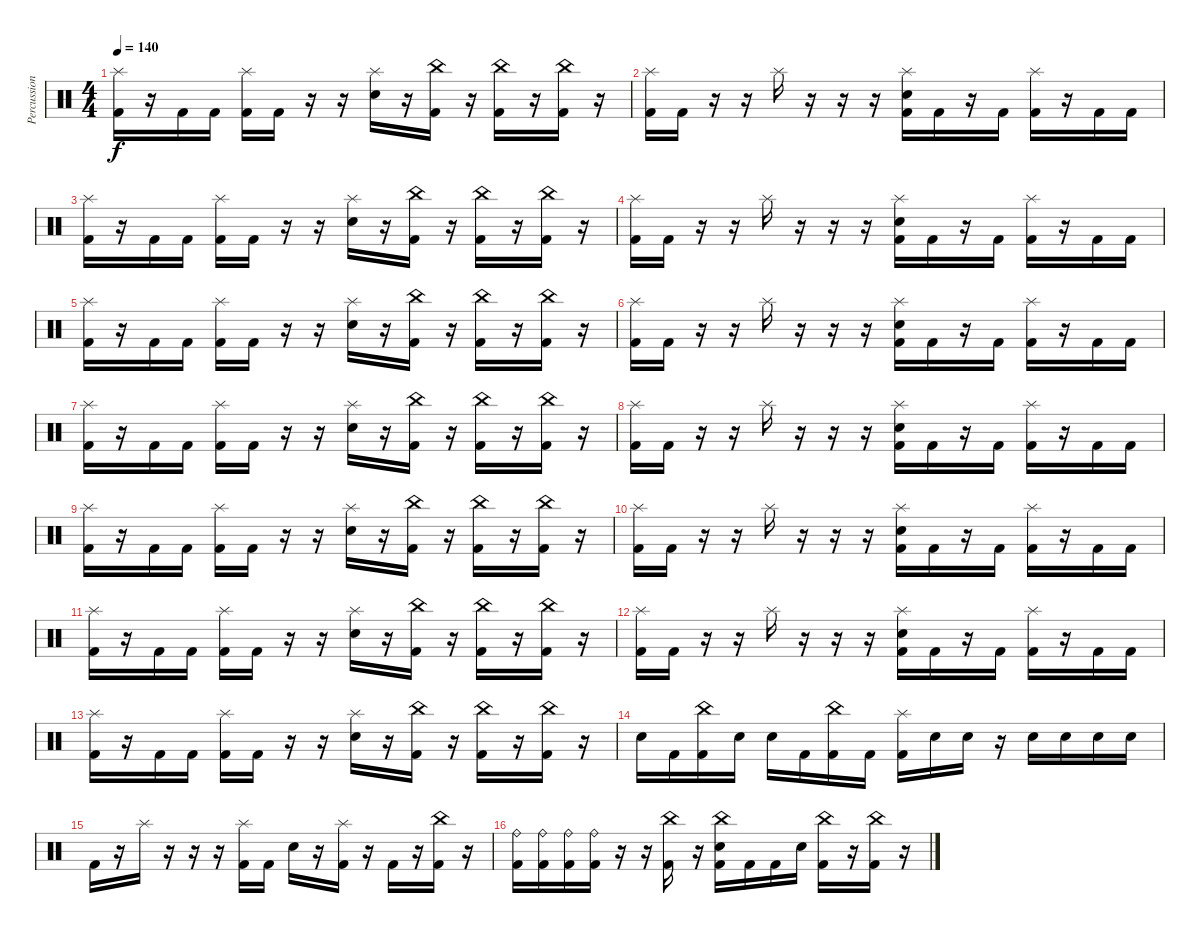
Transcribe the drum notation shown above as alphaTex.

\track ("Percussion" "Percussion") {instrument percussion}
\staff {score}
\articulation defaults
\ts (4 4)
\tempo 140
\clef neutral
\ks c
("Splash (hit)" "Kick (hit) 2").16{dy f} r.16 "Kick (hit) 2".16 "Kick (hit) 2".16 ("Splash (hit)" "Kick (hit) 2").16 "Kick (hit) 2".16 r.16 r.16 ("Splash (hit)" "Snare (hit) 2").16 r.16 ("China (hit)" "Kick (hit) 2").16 r.16 ("China (hit)" "Kick (hit) 2").16 r.16 ("China (hit)" "Kick (hit) 2").16 r.16 |
("Splash (hit)" "Kick (hit) 2").16 "Kick (hit) 2".16 r.16 r.16 "Splash (hit)".16 r.16 r.16 r.16 ("Splash (hit)" "Snare (hit) 2" "Kick (hit) 2").16 "Kick (hit) 2".16 r.16 "Kick (hit) 2".16 ("Splash (hit)" "Kick (hit) 2").16 r.16 "Kick (hit) 2".16 "Kick (hit) 2".16 |
("Splash (hit)" "Kick (hit) 2").16 r.16 "Kick (hit) 2".16 "Kick (hit) 2".16 ("Splash (hit)" "Kick (hit) 2").16 "Kick (hit) 2".16 r.16 r.16 ("Splash (hit)" "Snare (hit) 2").16 r.16 ("China (hit)" "Kick (hit) 2").16 r.16 ("China (hit)" "Kick (hit) 2").16 r.16 ("China (hit)" "Kick (hit) 2").16 r.16 |
("Splash (hit)" "Kick (hit) 2").16 "Kick (hit) 2".16 r.16 r.16 "Splash (hit)".16 r.16 r.16 r.16 ("Splash (hit)" "Snare (hit) 2" "Kick (hit) 2").16 "Kick (hit) 2".16 r.16 "Kick (hit) 2".16 ("Splash (hit)" "Kick (hit) 2").16 r.16 "Kick (hit) 2".16 "Kick (hit) 2".16 |
("Splash (hit)" "Kick (hit) 2").16 r.16 "Kick (hit) 2".16 "Kick (hit) 2".16 ("Splash (hit)" "Kick (hit) 2").16 "Kick (hit) 2".16 r.16 r.16 ("Splash (hit)" "Snare (hit) 2").16 r.16 ("China (hit)" "Kick (hit) 2").16 r.16 ("China (hit)" "Kick (hit) 2").16 r.16 ("China (hit)" "Kick (hit) 2").16 r.16 |
("Splash (hit)" "Kick (hit) 2").16 "Kick (hit) 2".16 r.16 r.16 "Splash (hit)".16 r.16 r.16 r.16 ("Splash (hit)" "Snare (hit) 2" "Kick (hit) 2").16 "Kick (hit) 2".16 r.16 "Kick (hit) 2".16 ("Splash (hit)" "Kick (hit) 2").16 r.16 "Kick (hit) 2".16 "Kick (hit) 2".16 |
("Splash (hit)" "Kick (hit) 2").16 r.16 "Kick (hit) 2".16 "Kick (hit) 2".16 ("Splash (hit)" "Kick (hit) 2").16 "Kick (hit) 2".16 r.16 r.16 ("Splash (hit)" "Snare (hit) 2").16 r.16 ("China (hit)" "Kick (hit) 2").16 r.16 ("China (hit)" "Kick (hit) 2").16 r.16 ("China (hit)" "Kick (hit) 2").16 r.16 |
("Splash (hit)" "Kick (hit) 2").16 "Kick (hit) 2".16 r.16 r.16 "Splash (hit)".16 r.16 r.16 r.16 ("Splash (hit)" "Snare (hit) 2" "Kick (hit) 2").16 "Kick (hit) 2".16 r.16 "Kick (hit) 2".16 ("Splash (hit)" "Kick (hit) 2").16 r.16 "Kick (hit) 2".16 "Kick (hit) 2".16 |
("Splash (hit)" "Kick (hit) 2").16 r.16 "Kick (hit) 2".16 "Kick (hit) 2".16 ("Splash (hit)" "Kick (hit) 2").16 "Kick (hit) 2".16 r.16 r.16 ("Splash (hit)" "Snare (hit) 2").16 r.16 ("China (hit)" "Kick (hit) 2").16 r.16 ("China (hit)" "Kick (hit) 2").16 r.16 ("China (hit)" "Kick (hit) 2").16 r.16 |
("Splash (hit)" "Kick (hit) 2").16 "Kick (hit) 2".16 r.16 r.16 "Splash (hit)".16 r.16 r.16 r.16 ("Splash (hit)" "Snare (hit) 2" "Kick (hit) 2").16 "Kick (hit) 2".16 r.16 "Kick (hit) 2".16 ("Splash (hit)" "Kick (hit) 2").16 r.16 "Kick (hit) 2".16 "Kick (hit) 2".16 |
("Splash (hit)" "Kick (hit) 2").16 r.16 "Kick (hit) 2".16 "Kick (hit) 2".16 ("Splash (hit)" "Kick (hit) 2").16 "Kick (hit) 2".16 r.16 r.16 ("Splash (hit)" "Snare (hit) 2").16 r.16 ("China (hit)" "Kick (hit) 2").16 r.16 ("China (hit)" "Kick (hit) 2").16 r.16 ("China (hit)" "Kick (hit) 2").16 r.16 |
("Splash (hit)" "Kick (hit) 2").16 "Kick (hit) 2".16 r.16 r.16 "Splash (hit)".16 r.16 r.16 r.16 ("Splash (hit)" "Snare (hit) 2" "Kick (hit) 2").16 "Kick (hit) 2".16 r.16 "Kick (hit) 2".16 ("Splash (hit)" "Kick (hit) 2").16 r.16 "Kick (hit) 2".16 "Kick (hit) 2".16 |
("Splash (hit)" "Kick (hit) 2").16 r.16 "Kick (hit) 2".16 "Kick (hit) 2".16 ("Splash (hit)" "Kick (hit) 2").16 "Kick (hit) 2".16 r.16 r.16 ("Splash (hit)" "Snare (hit) 2").16 r.16 ("China (hit)" "Kick (hit) 2").16 r.16 ("China (hit)" "Kick (hit) 2").16 r.16 ("China (hit)" "Kick (hit) 2").16 r.16 |
"Snare (hit) 2".16 "Kick (hit) 2".16 ("China (hit)" "Kick (hit) 2").16 "Snare (hit) 2".16 "Snare (hit) 2".16 "Kick (hit) 2".16 ("China (hit)" "Kick (hit) 2").16 "Kick (hit) 2".16 ("Splash (hit)" "Kick (hit) 2").16 "Snare (hit) 2".16 "Snare (hit) 2".16 r.16 "Snare (hit) 2".16 "Snare (hit) 2".16 "Snare (hit) 2".16 "Snare (hit) 2".16 |
"Kick (hit) 2".16 r.16 "Splash (hit)".16 r.16 r.16 r.16 ("Splash (hit)" "Kick (hit) 2").16 "Kick (hit) 2".16 "Snare (hit) 2".16 r.16 ("Splash (hit)" "Kick (hit) 2").16 r.16 "Kick (hit) 2".16 r.16 ("China (hit)" "Kick (hit) 2").16 r.16 |
("Ride (bell)" "Kick (hit) 2").16 ("Ride (bell)" "Kick (hit) 2").16 ("Ride (bell)" "Kick (hit) 2").16 ("Ride (bell)" "Kick (hit) 2").16 r.16 r.16 ("China (hit)" "Kick (hit) 2").16 r.16 ("China (hit)" "Snare (hit) 2" "Kick (hit) 2").16 "Kick (hit) 2".16 "Kick (hit) 2".16 "Snare (hit) 2".16 ("China (hit)" "Kick (hit) 2").16 r.16 ("China (hit)" "Kick (hit) 2").16 r.16
